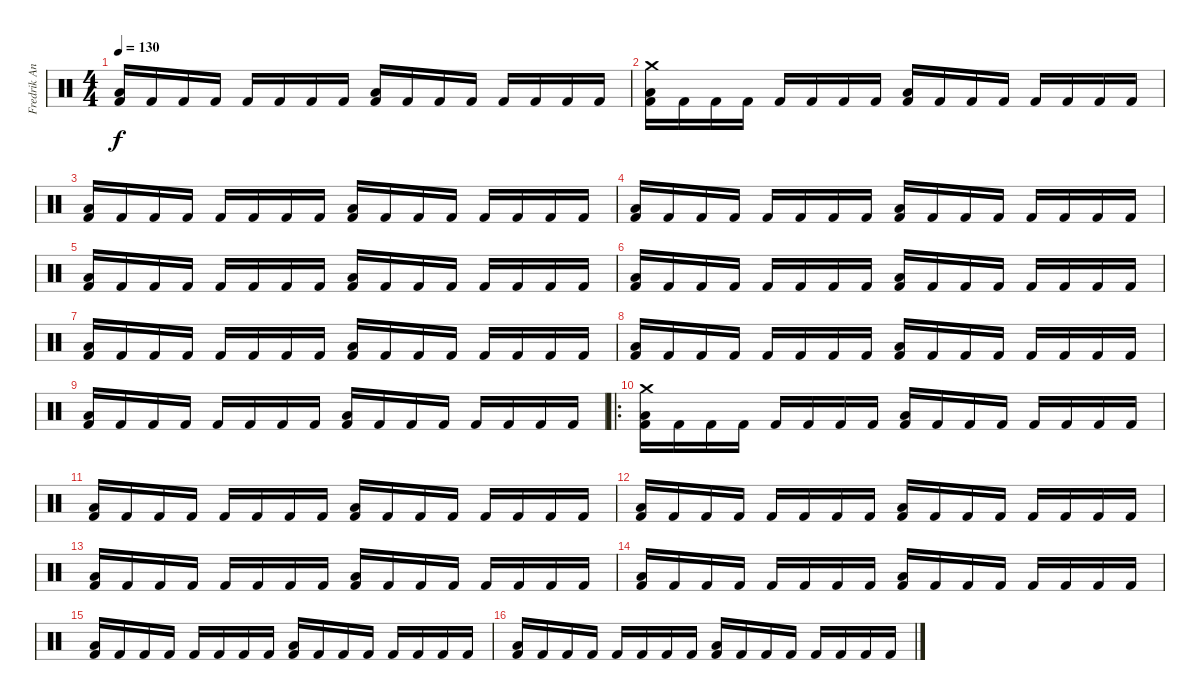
\track ("Fredrik Andersson" "Fredrik An") {instrument percussion}
\staff {score}
\articulation defaults
\ts (4 4)
\tempo 130
\clef neutral
\ks c
("Low Floor Tom (hit)" "Kick (hit) 2").16{dy f} "Kick (hit) 2".16 "Kick (hit) 2".16 "Kick (hit) 2".16 "Kick (hit) 2".16 "Kick (hit) 2".16 "Kick (hit) 2".16 "Kick (hit) 2".16 ("Low Floor Tom (hit)" "Kick (hit) 2").16 "Kick (hit) 2".16 "Kick (hit) 2".16 "Kick (hit) 2".16 "Kick (hit) 2".16 "Kick (hit) 2".16 "Kick (hit) 2".16 "Kick (hit) 2".16 |
("Crash medium (hit)" "Low Floor Tom (hit)" "Kick (hit) 2").16 "Kick (hit) 2".16 "Kick (hit) 2".16 "Kick (hit) 2".16 "Kick (hit) 2".16 "Kick (hit) 2".16 "Kick (hit) 2".16 "Kick (hit) 2".16 ("Low Floor Tom (hit)" "Kick (hit) 2").16 "Kick (hit) 2".16 "Kick (hit) 2".16 "Kick (hit) 2".16 "Kick (hit) 2".16 "Kick (hit) 2".16 "Kick (hit) 2".16 "Kick (hit) 2".16 |
("Low Floor Tom (hit)" "Kick (hit) 2").16 "Kick (hit) 2".16 "Kick (hit) 2".16 "Kick (hit) 2".16 "Kick (hit) 2".16 "Kick (hit) 2".16 "Kick (hit) 2".16 "Kick (hit) 2".16 ("Low Floor Tom (hit)" "Kick (hit) 2").16 "Kick (hit) 2".16 "Kick (hit) 2".16 "Kick (hit) 2".16 "Kick (hit) 2".16 "Kick (hit) 2".16 "Kick (hit) 2".16 "Kick (hit) 2".16 |
("Low Floor Tom (hit)" "Kick (hit) 2").16 "Kick (hit) 2".16 "Kick (hit) 2".16 "Kick (hit) 2".16 "Kick (hit) 2".16 "Kick (hit) 2".16 "Kick (hit) 2".16 "Kick (hit) 2".16 ("Low Floor Tom (hit)" "Kick (hit) 2").16 "Kick (hit) 2".16 "Kick (hit) 2".16 "Kick (hit) 2".16 "Kick (hit) 2".16 "Kick (hit) 2".16 "Kick (hit) 2".16 "Kick (hit) 2".16 |
("Low Floor Tom (hit)" "Kick (hit) 2").16 "Kick (hit) 2".16 "Kick (hit) 2".16 "Kick (hit) 2".16 "Kick (hit) 2".16 "Kick (hit) 2".16 "Kick (hit) 2".16 "Kick (hit) 2".16 ("Low Floor Tom (hit)" "Kick (hit) 2").16 "Kick (hit) 2".16 "Kick (hit) 2".16 "Kick (hit) 2".16 "Kick (hit) 2".16 "Kick (hit) 2".16 "Kick (hit) 2".16 "Kick (hit) 2".16 |
("Low Floor Tom (hit)" "Kick (hit) 2").16 "Kick (hit) 2".16 "Kick (hit) 2".16 "Kick (hit) 2".16 "Kick (hit) 2".16 "Kick (hit) 2".16 "Kick (hit) 2".16 "Kick (hit) 2".16 ("Low Floor Tom (hit)" "Kick (hit) 2").16 "Kick (hit) 2".16 "Kick (hit) 2".16 "Kick (hit) 2".16 "Kick (hit) 2".16 "Kick (hit) 2".16 "Kick (hit) 2".16 "Kick (hit) 2".16 |
("Low Floor Tom (hit)" "Kick (hit) 2").16 "Kick (hit) 2".16 "Kick (hit) 2".16 "Kick (hit) 2".16 "Kick (hit) 2".16 "Kick (hit) 2".16 "Kick (hit) 2".16 "Kick (hit) 2".16 ("Low Floor Tom (hit)" "Kick (hit) 2").16 "Kick (hit) 2".16 "Kick (hit) 2".16 "Kick (hit) 2".16 "Kick (hit) 2".16 "Kick (hit) 2".16 "Kick (hit) 2".16 "Kick (hit) 2".16 |
("Low Floor Tom (hit)" "Kick (hit) 2").16 "Kick (hit) 2".16 "Kick (hit) 2".16 "Kick (hit) 2".16 "Kick (hit) 2".16 "Kick (hit) 2".16 "Kick (hit) 2".16 "Kick (hit) 2".16 ("Low Floor Tom (hit)" "Kick (hit) 2").16 "Kick (hit) 2".16 "Kick (hit) 2".16 "Kick (hit) 2".16 "Kick (hit) 2".16 "Kick (hit) 2".16 "Kick (hit) 2".16 "Kick (hit) 2".16 |
("Low Floor Tom (hit)" "Kick (hit) 2").16 "Kick (hit) 2".16 "Kick (hit) 2".16 "Kick (hit) 2".16 "Kick (hit) 2".16 "Kick (hit) 2".16 "Kick (hit) 2".16 "Kick (hit) 2".16 ("Low Floor Tom (hit)" "Kick (hit) 2").16 "Kick (hit) 2".16 "Kick (hit) 2".16 "Kick (hit) 2".16 "Kick (hit) 2".16 "Kick (hit) 2".16 "Kick (hit) 2".16 "Kick (hit) 2".16 |
\ro
("Crash medium (hit)" "Low Floor Tom (hit)" "Kick (hit) 2").16 "Kick (hit) 2".16 "Kick (hit) 2".16 "Kick (hit) 2".16 "Kick (hit) 2".16 "Kick (hit) 2".16 "Kick (hit) 2".16 "Kick (hit) 2".16 ("Low Floor Tom (hit)" "Kick (hit) 2").16 "Kick (hit) 2".16 "Kick (hit) 2".16 "Kick (hit) 2".16 "Kick (hit) 2".16 "Kick (hit) 2".16 "Kick (hit) 2".16 "Kick (hit) 2".16 |
("Low Floor Tom (hit)" "Kick (hit) 2").16 "Kick (hit) 2".16 "Kick (hit) 2".16 "Kick (hit) 2".16 "Kick (hit) 2".16 "Kick (hit) 2".16 "Kick (hit) 2".16 "Kick (hit) 2".16 ("Low Floor Tom (hit)" "Kick (hit) 2").16 "Kick (hit) 2".16 "Kick (hit) 2".16 "Kick (hit) 2".16 "Kick (hit) 2".16 "Kick (hit) 2".16 "Kick (hit) 2".16 "Kick (hit) 2".16 |
("Low Floor Tom (hit)" "Kick (hit) 2").16 "Kick (hit) 2".16 "Kick (hit) 2".16 "Kick (hit) 2".16 "Kick (hit) 2".16 "Kick (hit) 2".16 "Kick (hit) 2".16 "Kick (hit) 2".16 ("Low Floor Tom (hit)" "Kick (hit) 2").16 "Kick (hit) 2".16 "Kick (hit) 2".16 "Kick (hit) 2".16 "Kick (hit) 2".16 "Kick (hit) 2".16 "Kick (hit) 2".16 "Kick (hit) 2".16 |
("Low Floor Tom (hit)" "Kick (hit) 2").16 "Kick (hit) 2".16 "Kick (hit) 2".16 "Kick (hit) 2".16 "Kick (hit) 2".16 "Kick (hit) 2".16 "Kick (hit) 2".16 "Kick (hit) 2".16 ("Low Floor Tom (hit)" "Kick (hit) 2").16 "Kick (hit) 2".16 "Kick (hit) 2".16 "Kick (hit) 2".16 "Kick (hit) 2".16 "Kick (hit) 2".16 "Kick (hit) 2".16 "Kick (hit) 2".16 |
("Low Floor Tom (hit)" "Kick (hit) 2").16 "Kick (hit) 2".16 "Kick (hit) 2".16 "Kick (hit) 2".16 "Kick (hit) 2".16 "Kick (hit) 2".16 "Kick (hit) 2".16 "Kick (hit) 2".16 ("Low Floor Tom (hit)" "Kick (hit) 2").16 "Kick (hit) 2".16 "Kick (hit) 2".16 "Kick (hit) 2".16 "Kick (hit) 2".16 "Kick (hit) 2".16 "Kick (hit) 2".16 "Kick (hit) 2".16 |
("Low Floor Tom (hit)" "Kick (hit) 2").16 "Kick (hit) 2".16 "Kick (hit) 2".16 "Kick (hit) 2".16 "Kick (hit) 2".16 "Kick (hit) 2".16 "Kick (hit) 2".16 "Kick (hit) 2".16 ("Low Floor Tom (hit)" "Kick (hit) 2").16 "Kick (hit) 2".16 "Kick (hit) 2".16 "Kick (hit) 2".16 "Kick (hit) 2".16 "Kick (hit) 2".16 "Kick (hit) 2".16 "Kick (hit) 2".16 |
("Low Floor Tom (hit)" "Kick (hit) 2").16 "Kick (hit) 2".16 "Kick (hit) 2".16 "Kick (hit) 2".16 "Kick (hit) 2".16 "Kick (hit) 2".16 "Kick (hit) 2".16 "Kick (hit) 2".16 ("Low Floor Tom (hit)" "Kick (hit) 2").16 "Kick (hit) 2".16 "Kick (hit) 2".16 "Kick (hit) 2".16 "Kick (hit) 2".16 "Kick (hit) 2".16 "Kick (hit) 2".16 "Kick (hit) 2".16
